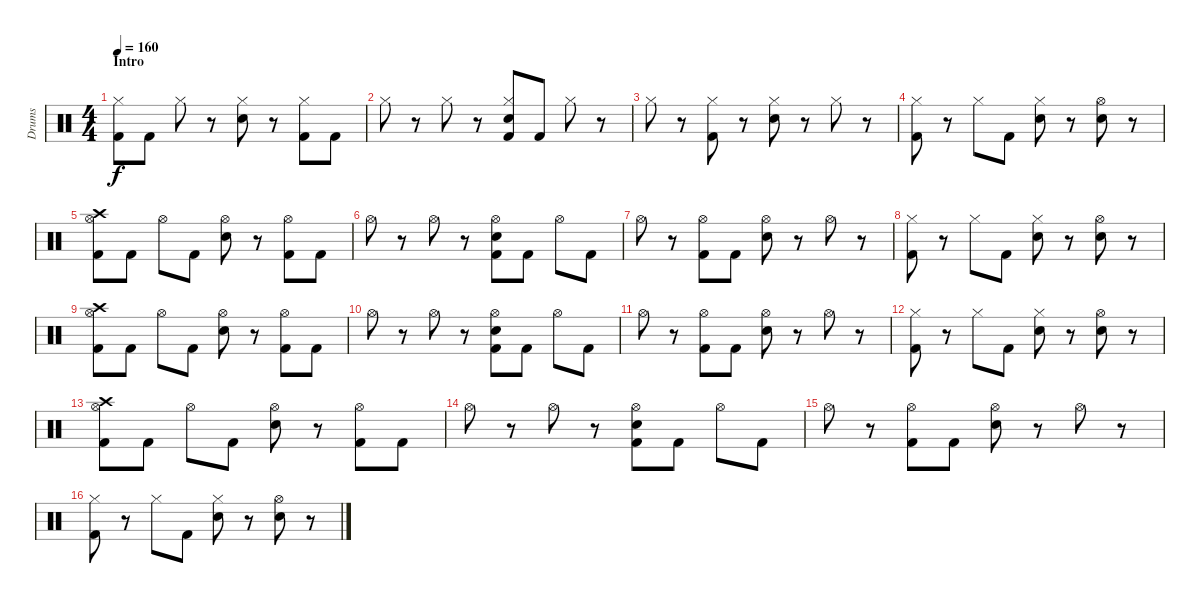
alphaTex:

\track ("Drums" "Drums") {instrument percussion}
\staff {score}
\articulation defaults
\ts (4 4)
\section ("" "Intro")
\tempo 160
\clef neutral
\ks c
("Kick (hit) 2" "Hi-Hat (closed)").8{dy f} "Kick (hit) 2".8 "Hi-Hat (closed)".8 r.8 ("Electric Snare (hit)" "Hi-Hat (closed)").8 r.8 ("Kick (hit) 2" "Hi-Hat (closed)").8 "Kick (hit) 2".8 |
"Hi-Hat (closed)".8 r.8 "Hi-Hat (closed)".8 r.8 ("Electric Snare (hit)" "Kick (hit) 2" "Hi-Hat (closed)").8 "Kick (hit) 2".8 "Hi-Hat (closed)".8 r.8 |
"Hi-Hat (closed)".8 r.8 ("Kick (hit) 2" "Hi-Hat (closed)").8 r.8 ("Electric Snare (hit)" "Hi-Hat (closed)").8 r.8 "Hi-Hat (closed)".8 r.8 |
("Kick (hit) 2" "Hi-Hat (closed)").8 r.8 "Hi-Hat (closed)".8 "Kick (hit) 2".8 ("Electric Snare (hit)" "Hi-Hat (closed)").8 r.8 ("Electric Snare (hit)" "Hi-Hat (open)").8 r.8 |
("Kick (hit) 2" "Crash high (hit)" "Hi-Hat (open)").8 "Kick (hit) 2".8 "Hi-Hat (open)".8 "Kick (hit) 2".8 ("Electric Snare (hit)" "Hi-Hat (open)").8 r.8 ("Kick (hit) 2" "Hi-Hat (open)").8 "Kick (hit) 2".8 |
"Hi-Hat (open)".8 r.8 "Hi-Hat (open)".8 r.8 ("Electric Snare (hit)" "Kick (hit) 2" "Hi-Hat (open)").8 "Kick (hit) 2".8 "Hi-Hat (open)".8 "Kick (hit) 2".8 |
"Hi-Hat (open)".8 r.8 ("Kick (hit) 2" "Hi-Hat (open)").8 "Kick (hit) 2".8 ("Electric Snare (hit)" "Hi-Hat (open)").8 r.8 "Hi-Hat (open)".8 r.8 |
("Kick (hit) 2" "Hi-Hat (closed)").8 r.8 "Hi-Hat (closed)".8 "Kick (hit) 2".8 ("Electric Snare (hit)" "Hi-Hat (closed)").8 r.8 ("Electric Snare (hit)" "Hi-Hat (open)").8 r.8 |
("Kick (hit) 2" "Crash high (hit)" "Hi-Hat (open)").8 "Kick (hit) 2".8 "Hi-Hat (open)".8 "Kick (hit) 2".8 ("Electric Snare (hit)" "Hi-Hat (open)").8 r.8 ("Kick (hit) 2" "Hi-Hat (open)").8 "Kick (hit) 2".8 |
"Hi-Hat (open)".8 r.8 "Hi-Hat (open)".8 r.8 ("Electric Snare (hit)" "Kick (hit) 2" "Hi-Hat (open)").8 "Kick (hit) 2".8 "Hi-Hat (open)".8 "Kick (hit) 2".8 |
"Hi-Hat (open)".8 r.8 ("Kick (hit) 2" "Hi-Hat (open)").8 "Kick (hit) 2".8 ("Electric Snare (hit)" "Hi-Hat (open)").8 r.8 "Hi-Hat (open)".8 r.8 |
("Kick (hit) 2" "Hi-Hat (closed)").8 r.8 "Hi-Hat (closed)".8 "Kick (hit) 2".8 ("Electric Snare (hit)" "Hi-Hat (closed)").8 r.8 ("Electric Snare (hit)" "Hi-Hat (open)").8 r.8 |
("Kick (hit) 2" "Crash high (hit)" "Hi-Hat (open)").8 "Kick (hit) 2".8 "Hi-Hat (open)".8 "Kick (hit) 2".8 ("Electric Snare (hit)" "Hi-Hat (open)").8 r.8 ("Kick (hit) 2" "Hi-Hat (open)").8 "Kick (hit) 2".8 |
"Hi-Hat (open)".8 r.8 "Hi-Hat (open)".8 r.8 ("Electric Snare (hit)" "Kick (hit) 2" "Hi-Hat (open)").8 "Kick (hit) 2".8 "Hi-Hat (open)".8 "Kick (hit) 2".8 |
"Hi-Hat (open)".8 r.8 ("Kick (hit) 2" "Hi-Hat (open)").8 "Kick (hit) 2".8 ("Electric Snare (hit)" "Hi-Hat (open)").8 r.8 "Hi-Hat (open)".8 r.8 |
("Kick (hit) 2" "Hi-Hat (closed)").8 r.8 "Hi-Hat (closed)".8 "Kick (hit) 2".8 ("Electric Snare (hit)" "Hi-Hat (closed)").8 r.8 ("Electric Snare (hit)" "Hi-Hat (open)").8 r.8
